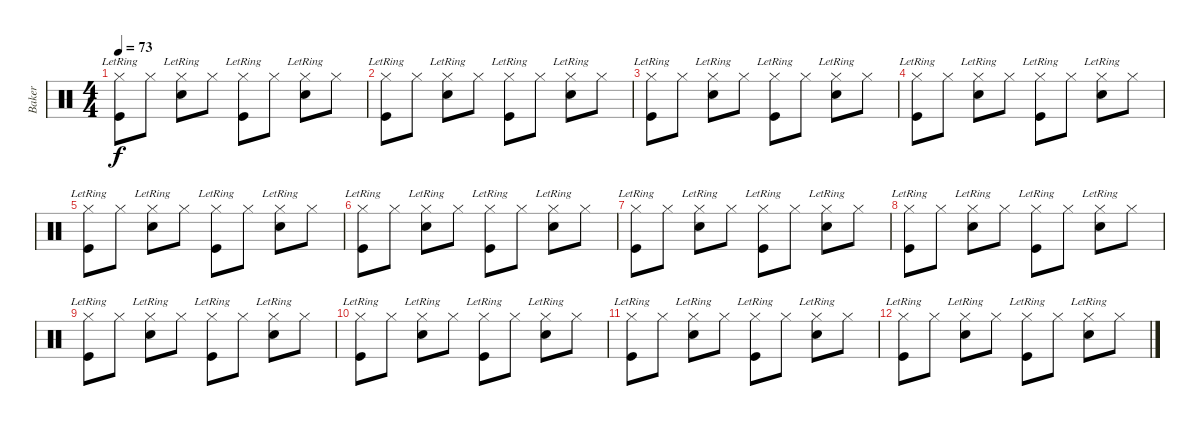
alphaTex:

\track ("Baker" "Baker") {instrument percussion}
\staff {score}
\articulation defaults
\ts (4 4)
\tempo 73
\clef neutral
\ks c
("Hi-Hat (closed)" "Kick (hit)"{lr}).8{dy f} "Hi-Hat (closed)".8 ("Hi-Hat (closed)" "Electric Snare (hit)"{lr}).8 "Hi-Hat (closed)".8 ("Hi-Hat (closed)" "Kick (hit)"{lr}).8 "Hi-Hat (closed)".8 ("Hi-Hat (closed)" "Electric Snare (hit)"{lr}).8 "Hi-Hat (closed)".8 |
("Hi-Hat (closed)" "Kick (hit)"{lr}).8 "Hi-Hat (closed)".8 ("Hi-Hat (closed)" "Electric Snare (hit)"{lr}).8 "Hi-Hat (closed)".8 ("Hi-Hat (closed)" "Kick (hit)"{lr}).8 "Hi-Hat (closed)".8 ("Hi-Hat (closed)" "Electric Snare (hit)"{lr}).8 "Hi-Hat (closed)".8 |
("Hi-Hat (closed)" "Kick (hit)"{lr}).8 "Hi-Hat (closed)".8 ("Hi-Hat (closed)" "Electric Snare (hit)"{lr}).8 "Hi-Hat (closed)".8 ("Hi-Hat (closed)" "Kick (hit)"{lr}).8 "Hi-Hat (closed)".8 ("Hi-Hat (closed)" "Electric Snare (hit)"{lr}).8 "Hi-Hat (closed)".8 |
("Hi-Hat (closed)" "Kick (hit)"{lr}).8 "Hi-Hat (closed)".8 ("Hi-Hat (closed)" "Electric Snare (hit)"{lr}).8 "Hi-Hat (closed)".8 ("Hi-Hat (closed)" "Kick (hit)"{lr}).8 "Hi-Hat (closed)".8 ("Hi-Hat (closed)" "Electric Snare (hit)"{lr}).8 "Hi-Hat (closed)".8 |
("Hi-Hat (closed)" "Kick (hit)"{lr}).8 "Hi-Hat (closed)".8 ("Hi-Hat (closed)" "Electric Snare (hit)"{lr}).8 "Hi-Hat (closed)".8 ("Hi-Hat (closed)" "Kick (hit)"{lr}).8 "Hi-Hat (closed)".8 ("Hi-Hat (closed)" "Electric Snare (hit)"{lr}).8 "Hi-Hat (closed)".8 |
("Hi-Hat (closed)" "Kick (hit)"{lr}).8 "Hi-Hat (closed)".8 ("Hi-Hat (closed)" "Electric Snare (hit)"{lr}).8 "Hi-Hat (closed)".8 ("Hi-Hat (closed)" "Kick (hit)"{lr}).8 "Hi-Hat (closed)".8 ("Hi-Hat (closed)" "Electric Snare (hit)"{lr}).8 "Hi-Hat (closed)".8 |
("Hi-Hat (closed)" "Kick (hit)"{lr}).8 "Hi-Hat (closed)".8 ("Hi-Hat (closed)" "Electric Snare (hit)"{lr}).8 "Hi-Hat (closed)".8 ("Hi-Hat (closed)" "Kick (hit)"{lr}).8 "Hi-Hat (closed)".8 ("Hi-Hat (closed)" "Electric Snare (hit)"{lr}).8 "Hi-Hat (closed)".8 |
("Hi-Hat (closed)" "Kick (hit)"{lr}).8 "Hi-Hat (closed)".8 ("Hi-Hat (closed)" "Electric Snare (hit)"{lr}).8 "Hi-Hat (closed)".8 ("Hi-Hat (closed)" "Kick (hit)"{lr}).8 "Hi-Hat (closed)".8 ("Hi-Hat (closed)" "Electric Snare (hit)"{lr}).8 "Hi-Hat (closed)".8 |
("Hi-Hat (closed)" "Kick (hit)"{lr}).8 "Hi-Hat (closed)".8 ("Hi-Hat (closed)" "Electric Snare (hit)"{lr}).8 "Hi-Hat (closed)".8 ("Hi-Hat (closed)" "Kick (hit)"{lr}).8 "Hi-Hat (closed)".8 ("Hi-Hat (closed)" "Electric Snare (hit)"{lr}).8 "Hi-Hat (closed)".8 |
("Hi-Hat (closed)" "Kick (hit)"{lr}).8 "Hi-Hat (closed)".8 ("Hi-Hat (closed)" "Electric Snare (hit)"{lr}).8 "Hi-Hat (closed)".8 ("Hi-Hat (closed)" "Kick (hit)"{lr}).8 "Hi-Hat (closed)".8 ("Hi-Hat (closed)" "Electric Snare (hit)"{lr}).8 "Hi-Hat (closed)".8 |
("Hi-Hat (closed)" "Kick (hit)"{lr}).8 "Hi-Hat (closed)".8 ("Hi-Hat (closed)" "Electric Snare (hit)"{lr}).8 "Hi-Hat (closed)".8 ("Hi-Hat (closed)" "Kick (hit)"{lr}).8 "Hi-Hat (closed)".8 ("Hi-Hat (closed)" "Electric Snare (hit)"{lr}).8 "Hi-Hat (closed)".8 |
("Hi-Hat (closed)" "Kick (hit)"{lr}).8 "Hi-Hat (closed)".8 ("Hi-Hat (closed)" "Electric Snare (hit)"{lr}).8 "Hi-Hat (closed)".8 ("Hi-Hat (closed)" "Kick (hit)"{lr}).8 "Hi-Hat (closed)".8 ("Hi-Hat (closed)" "Electric Snare (hit)"{lr}).8 "Hi-Hat (closed)".8
